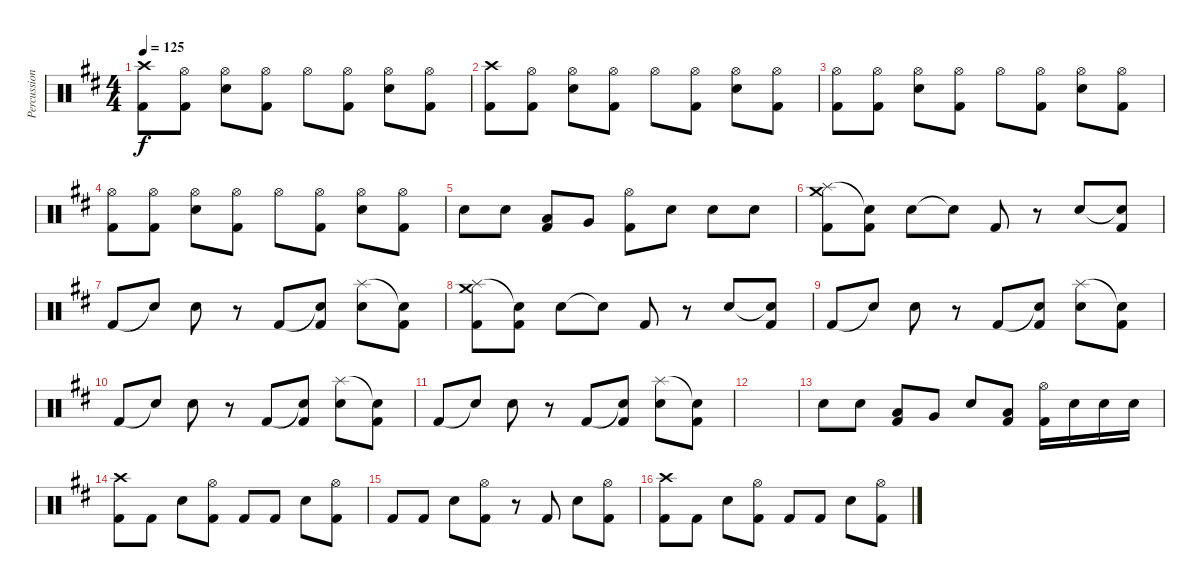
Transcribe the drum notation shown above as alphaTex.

\track ("Percussion" "Percussion") {instrument percussion}
\staff {score}
\articulation defaults
\ts (4 4)
\tempo 125
\clef neutral
\ks d
("Crash high (hit)" "Kick (hit) 2").8{dy f} ("Hi-Hat (open)" "Kick (hit) 2").8 ("Hi-Hat (open)" "Electric Snare (hit)").8 ("Hi-Hat (open)" "Kick (hit) 2").8 "Hi-Hat (open)".8 ("Hi-Hat (open)" "Kick (hit) 2").8 ("Hi-Hat (open)" "Electric Snare (hit)").8 ("Hi-Hat (open)" "Kick (hit) 2").8 |
("Crash high (hit)" "Kick (hit) 2").8 ("Hi-Hat (open)" "Kick (hit) 2").8 ("Hi-Hat (open)" "Electric Snare (hit)").8 ("Hi-Hat (open)" "Kick (hit) 2").8 "Hi-Hat (open)".8 ("Hi-Hat (open)" "Kick (hit) 2").8 ("Hi-Hat (open)" "Electric Snare (hit)").8 ("Hi-Hat (open)" "Kick (hit) 2").8 |
("Hi-Hat (open)" "Kick (hit) 2").8 ("Hi-Hat (open)" "Kick (hit) 2").8 ("Hi-Hat (open)" "Electric Snare (hit)").8 ("Hi-Hat (open)" "Kick (hit) 2").8 "Hi-Hat (open)".8 ("Hi-Hat (open)" "Kick (hit) 2").8 ("Hi-Hat (open)" "Electric Snare (hit)").8 ("Hi-Hat (open)" "Kick (hit) 2").8 |
("Hi-Hat (open)" "Kick (hit) 2").8 ("Hi-Hat (open)" "Kick (hit) 2").8 ("Hi-Hat (open)" "Electric Snare (hit)").8 ("Hi-Hat (open)" "Kick (hit) 2").8 "Hi-Hat (open)".8 ("Hi-Hat (open)" "Kick (hit) 2").8 ("Hi-Hat (open)" "Electric Snare (hit)").8 ("Hi-Hat (open)" "Kick (hit) 2").8 |
"Electric Snare (hit)".8 "Electric Snare (hit)".8 ("Low Tom (hit)" "Kick (hit) 2").8 "Very Low Tom (hit)".8 ("Hi-Hat (open)" "Kick (hit) 2").8 "Electric Snare (hit)".8 "Electric Snare (hit)".8 "Electric Snare (hit)".8 |
("Splash (hit)" "Crash medium (hit)" "Kick (hit) 2").8 ("Snare (hit)"{t} "Kick (hit) 2").8 "Electric Snare (hit)".8 "Snare (hit)"{t}.8 "Kick (hit) 2".8 r.8 "Electric Snare (hit)".8 ("Snare (hit)"{t} "Kick (hit) 2").8 |
"Kick (hit) 2".8 "Snare (hit)"{t}.8 "Electric Snare (hit)".8 r.8 "Kick (hit) 2".8 ("Snare (hit)"{t} "Kick (hit) 2").8 ("Splash (hit)" "Electric Snare (hit)").8 ("Snare (hit)"{t} "Kick (hit) 2").8 |
("Splash (hit)" "Crash medium (hit)" "Kick (hit) 2").8 ("Snare (hit)"{t} "Kick (hit) 2").8 "Electric Snare (hit)".8 "Snare (hit)"{t}.8 "Kick (hit) 2".8 r.8 "Electric Snare (hit)".8 ("Snare (hit)"{t} "Kick (hit) 2").8 |
"Kick (hit) 2".8 "Snare (hit)"{t}.8 "Electric Snare (hit)".8 r.8 "Kick (hit) 2".8 ("Snare (hit)"{t} "Kick (hit) 2").8 ("Splash (hit)" "Electric Snare (hit)").8 ("Snare (hit)"{t} "Kick (hit) 2").8 |
"Kick (hit) 2".8 "Snare (hit)"{t}.8 "Electric Snare (hit)".8 r.8 "Kick (hit) 2".8 ("Snare (hit)"{t} "Kick (hit) 2").8 ("Splash (hit)" "Electric Snare (hit)").8 ("Snare (hit)"{t} "Kick (hit) 2").8 |
"Kick (hit) 2".8 "Snare (hit)"{t}.8 "Electric Snare (hit)".8 r.8 "Kick (hit) 2".8 ("Snare (hit)"{t} "Kick (hit) 2").8 ("Splash (hit)" "Electric Snare (hit)").8 ("Snare (hit)"{t} "Kick (hit) 2").8 |
|
"Electric Snare (hit)".8 "Electric Snare (hit)".8 ("Low Tom (hit)" "Kick (hit) 2").8 "Very Low Tom (hit)".8 "Electric Snare (hit)".8 ("Low Tom (hit)" "Kick (hit) 2").8 ("Hi-Hat (open)" "Kick (hit) 2").16 "Electric Snare (hit)".16 "Electric Snare (hit)".16 "Electric Snare (hit)".16 |
("Crash high (hit)" "Kick (hit) 2").8 "Kick (hit) 2".8 "Electric Snare (hit)".8 ("Hi-Hat (open)" "Kick (hit) 2").8 "Kick (hit) 2".8 "Kick (hit) 2".8 "Electric Snare (hit)".8 ("Hi-Hat (open)" "Kick (hit) 2").8 |
"Kick (hit) 2".8 "Kick (hit) 2".8 "Electric Snare (hit)".8 ("Hi-Hat (open)" "Kick (hit) 2").8 r.8 "Kick (hit) 2".8 "Electric Snare (hit)".8 ("Hi-Hat (open)" "Kick (hit) 2").8 |
("Crash high (hit)" "Kick (hit) 2").8 "Kick (hit) 2".8 "Electric Snare (hit)".8 ("Hi-Hat (open)" "Kick (hit) 2").8 "Kick (hit) 2".8 "Kick (hit) 2".8 "Electric Snare (hit)".8 ("Hi-Hat (open)" "Kick (hit) 2").8
